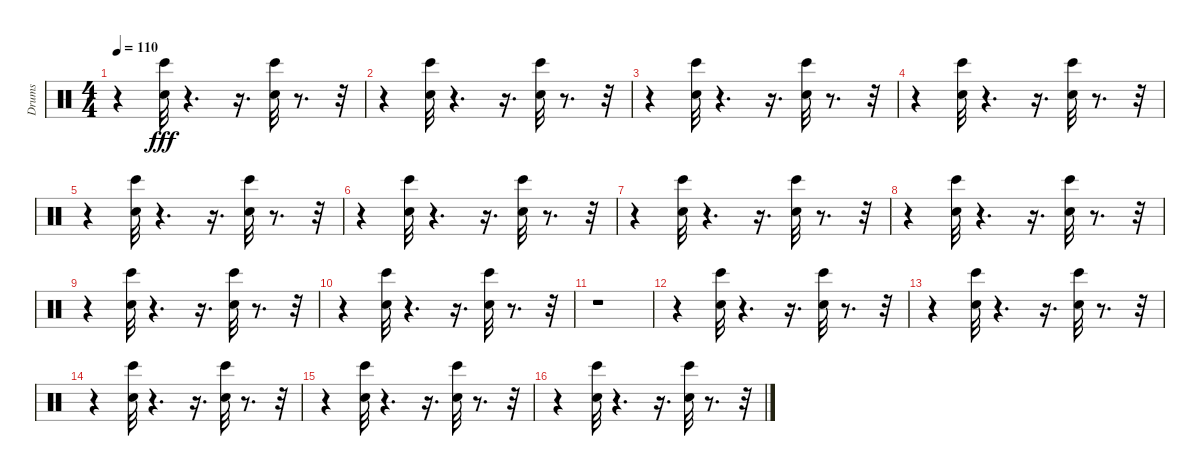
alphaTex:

\track ("Drums" "Drums") {instrument percussion}
\staff {score}
\articulation defaults
\ts (4 4)
\tempo 110
\clef neutral
\ks c
r.4{dy fff} ("Snare (hit) 2" "Bongo High (hit)").32 r.4{d} r.16{d} ("Snare (hit) 2" "Bongo High (hit)").32 r.8{d} r.32 |
r.4 ("Snare (hit) 2" "Bongo High (hit)").32 r.4{d} r.16{d} ("Snare (hit) 2" "Bongo High (hit)").32 r.8{d} r.32 |
r.4 ("Snare (hit) 2" "Bongo High (hit)").32 r.4{d} r.16{d} ("Snare (hit) 2" "Bongo High (hit)").32 r.8{d} r.32 |
r.4 ("Snare (hit) 2" "Bongo High (hit)").32 r.4{d} r.16{d} ("Snare (hit) 2" "Bongo High (hit)").32 r.8{d} r.32 |
r.4 ("Snare (hit) 2" "Bongo High (hit)").32 r.4{d} r.16{d} ("Snare (hit) 2" "Bongo High (hit)").32 r.8{d} r.32 |
r.4 ("Snare (hit) 2" "Bongo High (hit)").32 r.4{d} r.16{d} ("Snare (hit) 2" "Bongo High (hit)").32 r.8{d} r.32 |
r.4 ("Snare (hit) 2" "Bongo High (hit)").32 r.4{d} r.16{d} ("Snare (hit) 2" "Bongo High (hit)").32 r.8{d} r.32 |
r.4 ("Snare (hit) 2" "Bongo High (hit)").32 r.4{d} r.16{d} ("Snare (hit) 2" "Bongo High (hit)").32 r.8{d} r.32 |
r.4 ("Snare (hit) 2" "Bongo High (hit)").32 r.4{d} r.16{d} ("Snare (hit) 2" "Bongo High (hit)").32 r.8{d} r.32 |
r.4 ("Snare (hit) 2" "Bongo High (hit)").32 r.4{d} r.16{d} ("Snare (hit) 2" "Bongo High (hit)").32 r.8{d} r.32 |
r.1 |
r.4 ("Snare (hit) 2" "Bongo High (hit)").32 r.4{d} r.16{d} ("Snare (hit) 2" "Bongo High (hit)").32 r.8{d} r.32 |
r.4 ("Snare (hit) 2" "Bongo High (hit)").32 r.4{d} r.16{d} ("Snare (hit) 2" "Bongo High (hit)").32 r.8{d} r.32 |
r.4 ("Snare (hit) 2" "Bongo High (hit)").32 r.4{d} r.16{d} ("Snare (hit) 2" "Bongo High (hit)").32 r.8{d} r.32 |
r.4 ("Snare (hit) 2" "Bongo High (hit)").32 r.4{d} r.16{d} ("Snare (hit) 2" "Bongo High (hit)").32 r.8{d} r.32 |
r.4 ("Snare (hit) 2" "Bongo High (hit)").32 r.4{d} r.16{d} ("Snare (hit) 2" "Bongo High (hit)").32 r.8{d} r.32
